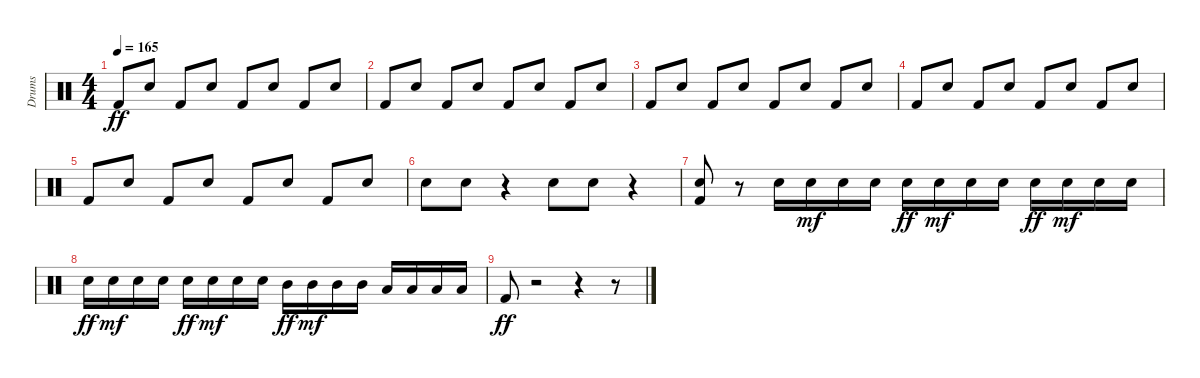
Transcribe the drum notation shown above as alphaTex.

\track ("Drums" "Drums") {instrument percussion}
\staff {score}
\articulation defaults
\ts (4 4)
\tempo 165
\clef neutral
\ks c "Kick (hit) 2".8{dy ff} "Snare (hit) 2".8 "Kick (hit) 2".8 "Snare (hit) 2".8 "Kick (hit) 2".8 "Snare (hit) 2".8 "Kick (hit) 2".8 "Snare (hit) 2".8
|
"Kick (hit) 2".8 "Snare (hit) 2".8 "Kick (hit) 2".8 "Snare (hit) 2".8 "Kick (hit) 2".8 "Snare (hit) 2".8 "Kick (hit) 2".8 "Snare (hit) 2".8 |
"Kick (hit) 2".8 "Snare (hit) 2".8 "Kick (hit) 2".8 "Snare (hit) 2".8 "Kick (hit) 2".8 "Snare (hit) 2".8 "Kick (hit) 2".8 "Snare (hit) 2".8 |
"Kick (hit) 2".8 "Snare (hit) 2".8 "Kick (hit) 2".8 "Snare (hit) 2".8 "Kick (hit) 2".8 "Snare (hit) 2".8 "Kick (hit) 2".8 "Snare (hit) 2".8 |
"Kick (hit) 2".8 "Snare (hit) 2".8 "Kick (hit) 2".8 "Snare (hit) 2".8 "Kick (hit) 2".8 "Snare (hit) 2".8 "Kick (hit) 2".8 "Snare (hit) 2".8 |
"Snare (hit) 2".8 "Snare (hit) 2".8 r.4 "Snare (hit) 2".8 "Snare (hit) 2".8 r.4 |
("Kick (hit) 2" "Snare (hit) 2").8 r.8 "Snare (hit) 2".16 "Snare (hit) 2".16{dy mf} "Snare (hit) 2".16 "Snare (hit) 2".16 "Snare (hit) 2".16{dy ff} "Snare (hit) 2".16{dy mf} "Snare (hit) 2".16 "Snare (hit) 2".16 "Snare (hit) 2".16{dy ff} "Snare (hit) 2".16{dy mf} "Snare (hit) 2".16 "Snare (hit) 2".16 |
"Snare (hit) 2".16{dy ff} "Snare (hit) 2".16{dy mf} "Snare (hit) 2".16 "Snare (hit) 2".16 "Snare (hit) 2".16{dy ff} "Snare (hit) 2".16{dy mf} "Snare (hit) 2".16 "Snare (hit) 2".16 "Mid Tom (hit)".16{dy ff} "Mid Tom (hit)".16{dy mf} "Mid Tom (hit)".16 "Mid Tom (hit)".16 "Low Tom (hit)".16 "Low Tom (hit)".16 "Low Tom (hit)".16 "Low Tom (hit)".16 |
"Kick (hit) 2".8{dy ff} r.2 r.4 r.8
